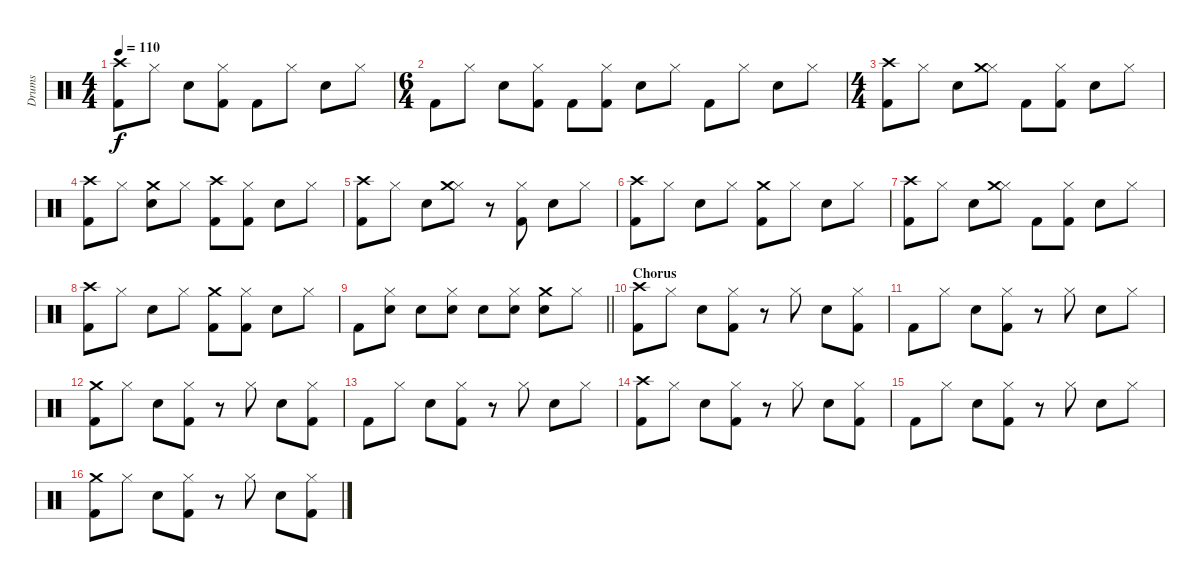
\track ("Drums" "Drums") {instrument percussion}
\staff {score}
\articulation defaults
\ts (4 4)
\tempo 110
\clef neutral
\ks c
("Kick (hit) 2" "Crash high (hit)").8{dy f} "Hi-Hat (closed)".8 "Snare (hit) 2".8 ("Kick (hit) 2" "Hi-Hat (closed)").8 "Kick (hit) 2".8 "Hi-Hat (closed)".8 "Snare (hit) 2".8 "Hi-Hat (closed)".8 |
\ts (6 4)
"Kick (hit) 2".8 "Hi-Hat (closed)".8 "Snare (hit) 2".8 ("Kick (hit) 2" "Hi-Hat (closed)").8 "Kick (hit) 2".8 ("Kick (hit) 2" "Hi-Hat (closed)").8 "Snare (hit) 2".8 "Hi-Hat (closed)".8 "Kick (hit) 2".8 "Hi-Hat (closed)".8 "Snare (hit) 2".8 "Hi-Hat (closed)".8 |
\ts (4 4)
("Kick (hit) 2" "Crash high (hit)").8 "Hi-Hat (closed)".8 "Snare (hit) 2".8 ("Hi-Hat (closed)" "Crash medium (hit)").8 "Kick (hit) 2".8 ("Kick (hit) 2" "Hi-Hat (closed)").8 "Snare (hit) 2".8 "Hi-Hat (closed)".8 |
("Kick (hit) 2" "Crash high (hit)").8 "Hi-Hat (closed)".8 ("Snare (hit) 2" "Crash medium (hit)").8 "Hi-Hat (closed)".8 ("Kick (hit) 2" "Crash high (hit)").8 ("Kick (hit) 2" "Hi-Hat (closed)").8 "Snare (hit) 2".8 "Hi-Hat (closed)".8 |
("Kick (hit) 2" "Crash high (hit)").8 "Hi-Hat (closed)".8 "Snare (hit) 2".8 ("Hi-Hat (closed)" "Crash medium (hit)").8 r.8 ("Kick (hit) 2" "Hi-Hat (closed)").8 "Snare (hit) 2".8 "Hi-Hat (closed)".8 |
("Kick (hit) 2" "Crash high (hit)").8 "Hi-Hat (closed)".8 "Snare (hit) 2".8 "Hi-Hat (closed)".8 ("Kick (hit) 2" "Crash medium (hit)").8 "Hi-Hat (closed)".8 "Snare (hit) 2".8 "Hi-Hat (closed)".8 |
("Kick (hit) 2" "Crash high (hit)").8 "Hi-Hat (closed)".8 "Snare (hit) 2".8 ("Hi-Hat (closed)" "Crash medium (hit)").8 "Kick (hit) 2".8 ("Kick (hit) 2" "Hi-Hat (closed)").8 "Snare (hit) 2".8 "Hi-Hat (closed)".8 |
("Kick (hit) 2" "Crash high (hit)").8 "Hi-Hat (closed)".8 "Snare (hit) 2".8 "Hi-Hat (closed)".8 ("Kick (hit) 2" "Crash medium (hit)").8 ("Kick (hit) 2" "Hi-Hat (closed)").8 "Snare (hit) 2".8 "Hi-Hat (closed)".8 |
\barLineRight lightlight "Kick (hit) 2".8
("Snare (hit) 2" "Hi-Hat (closed)").8 "Snare (hit) 2".8 ("Snare (hit) 2" "Hi-Hat (closed)").8 "Snare (hit) 2".8 ("Snare (hit) 2" "Hi-Hat (closed)").8 ("Snare (hit) 2" "Crash medium (hit)").8 "Hi-Hat (closed)".8 |
\section ("" "Chorus")
("Kick (hit) 2" "Crash high (hit)").8 "Hi-Hat (closed)".8 "Snare (hit) 2".8 ("Kick (hit) 2" "Hi-Hat (closed)").8 r.8 "Hi-Hat (closed)".8 "Snare (hit) 2".8 ("Kick (hit) 2" "Hi-Hat (closed)").8 |
"Kick (hit) 2".8 "Hi-Hat (closed)".8 "Snare (hit) 2".8 ("Kick (hit) 2" "Hi-Hat (closed)").8 r.8 "Hi-Hat (closed)".8 "Snare (hit) 2".8 "Hi-Hat (closed)".8 |
("Kick (hit) 2" "Crash medium (hit)").8 "Hi-Hat (closed)".8 "Snare (hit) 2".8 ("Kick (hit) 2" "Hi-Hat (closed)").8 r.8 "Hi-Hat (closed)".8 "Snare (hit) 2".8 ("Kick (hit) 2" "Hi-Hat (closed)").8 |
"Kick (hit) 2".8 "Hi-Hat (closed)".8 "Snare (hit) 2".8 ("Kick (hit) 2" "Hi-Hat (closed)").8 r.8 "Hi-Hat (closed)".8 "Snare (hit) 2".8 "Hi-Hat (closed)".8 |
("Kick (hit) 2" "Crash high (hit)").8 "Hi-Hat (closed)".8 "Snare (hit) 2".8 ("Kick (hit) 2" "Hi-Hat (closed)").8 r.8 "Hi-Hat (closed)".8 "Snare (hit) 2".8 ("Kick (hit) 2" "Hi-Hat (closed)").8 |
"Kick (hit) 2".8 "Hi-Hat (closed)".8 "Snare (hit) 2".8 ("Kick (hit) 2" "Hi-Hat (closed)").8 r.8 "Hi-Hat (closed)".8 "Snare (hit) 2".8 "Hi-Hat (closed)".8 |
("Kick (hit) 2" "Crash medium (hit)").8 "Hi-Hat (closed)".8 "Snare (hit) 2".8 ("Kick (hit) 2" "Hi-Hat (closed)").8 r.8 "Hi-Hat (closed)".8 "Snare (hit) 2".8 ("Kick (hit) 2" "Hi-Hat (closed)").8
